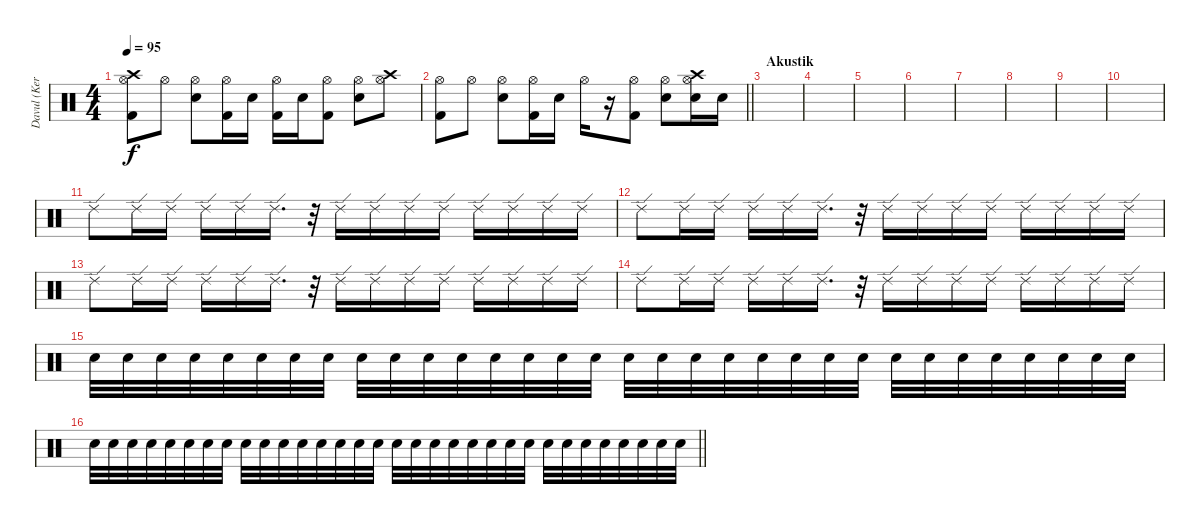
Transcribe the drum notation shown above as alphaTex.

\track ("Davul (Kerem Kabadayı)" "Davul (Ker") {instrument percussion}
\staff {score}
\articulation defaults
\ts (4 4)
\tempo 95
\clef neutral
\ks c
("Crash high (hit)" "Kick (hit) 2" "Hi-Hat (open)").8{dy f} "Hi-Hat (open)".8 ("Snare (hit) 2" "Hi-Hat (open)").8 ("Kick (hit) 2" "Hi-Hat (open)").16 "Snare (hit) 2".16 ("Kick (hit) 2" "Hi-Hat (open)").16 "Snare (hit) 2".16 ("Kick (hit) 2" "Hi-Hat (open)").8 ("Snare (hit) 2" "Hi-Hat (open)").8 ("Crash high (hit)" "Hi-Hat (open)").8 |
\barLineRight lightlight
("Kick (hit) 2" "Hi-Hat (open)").8 "Hi-Hat (open)".8 ("Snare (hit) 2" "Hi-Hat (open)").8 ("Kick (hit) 2" "Hi-Hat (open)").16 "Snare (hit) 2".16 "Hi-Hat (open)".16 r.16 ("Kick (hit) 2" "Hi-Hat (open)").8 ("Snare (hit) 2" "Hi-Hat (open)").8 ("Crash high (hit)" "Snare (hit) 2" "Hi-Hat (open)").16 "Snare (hit) 2".16 |
\section ("" "Akustik")
|
|
|
|
|
|
|
|
"Ride (edge) 2".8{volume 7} "Ride (edge) 2".16 "Ride (edge) 2".16 "Ride (edge) 2".16 "Ride (edge) 2".16 "Ride (edge) 2".16{d} r.32 "Ride (edge) 2".16 "Ride (edge) 2".16 "Ride (edge) 2".16 "Ride (edge) 2".16 "Ride (edge) 2".16 "Ride (edge) 2".16 "Ride (edge) 2".16 "Ride (edge) 2".16 |
"Ride (edge) 2".8 "Ride (edge) 2".16 "Ride (edge) 2".16 "Ride (edge) 2".16 "Ride (edge) 2".16 "Ride (edge) 2".16{d} r.32 "Ride (edge) 2".16 "Ride (edge) 2".16 "Ride (edge) 2".16 "Ride (edge) 2".16 "Ride (edge) 2".16 "Ride (edge) 2".16 "Ride (edge) 2".16 "Ride (edge) 2".16 |
"Ride (edge) 2".8 "Ride (edge) 2".16 "Ride (edge) 2".16 "Ride (edge) 2".16 "Ride (edge) 2".16 "Ride (edge) 2".16{d} r.32 "Ride (edge) 2".16 "Ride (edge) 2".16 "Ride (edge) 2".16 "Ride (edge) 2".16 "Ride (edge) 2".16 "Ride (edge) 2".16 "Ride (edge) 2".16 "Ride (edge) 2".16 |
"Ride (edge) 2".8 "Ride (edge) 2".16 "Ride (edge) 2".16 "Ride (edge) 2".16 "Ride (edge) 2".16 "Ride (edge) 2".16{d} r.32 "Ride (edge) 2".16 "Ride (edge) 2".16 "Ride (edge) 2".16 "Ride (edge) 2".16 "Ride (edge) 2".16 "Ride (edge) 2".16 "Ride (edge) 2".16 "Ride (edge) 2".16 |
"Snare (hit) 2".32{volume 16} "Snare (hit) 2".32 "Snare (hit) 2".32 "Snare (hit) 2".32 "Snare (hit) 2".32 "Snare (hit) 2".32 "Snare (hit) 2".32 "Snare (hit) 2".32 "Snare (hit) 2".32 "Snare (hit) 2".32 "Snare (hit) 2".32 "Snare (hit) 2".32 "Snare (hit) 2".32 "Snare (hit) 2".32 "Snare (hit) 2".32 "Snare (hit) 2".32 "Snare (hit) 2".32 "Snare (hit) 2".32 "Snare (hit) 2".32 "Snare (hit) 2".32 "Snare (hit) 2".32 "Snare (hit) 2".32 "Snare (hit) 2".32 "Snare (hit) 2".32 "Snare (hit) 2".32 "Snare (hit) 2".32 "Snare (hit) 2".32 "Snare (hit) 2".32 "Snare (hit) 2".32 "Snare (hit) 2".32 "Snare (hit) 2".32 "Snare (hit) 2".32 |
\barLineRight lightlight "Snare (hit) 2".32 "Snare (hit) 2".32 "Snare (hit) 2".32 "Snare (hit) 2".32 "Snare (hit) 2".32 "Snare (hit) 2".32 "Snare (hit) 2".32 "Snare (hit) 2".32 "Snare (hit) 2".32 "Snare (hit) 2".32 "Snare (hit) 2".32 "Snare (hit) 2".32 "Snare (hit) 2".32 "Snare (hit) 2".32 "Snare (hit) 2".32 "Snare (hit) 2".32 "Snare (hit) 2".32 "Snare (hit) 2".32 "Snare (hit) 2".32 "Snare (hit) 2".32 "Snare (hit) 2".32 "Snare (hit) 2".32 "Snare (hit) 2".32 "Snare (hit) 2".32 "Snare (hit) 2".32 "Snare (hit) 2".32 "Snare (hit) 2".32 "Snare (hit) 2".32 "Snare (hit) 2".32 "Snare (hit) 2".32 "Snare (hit) 2".32 "Snare (hit) 2".32
